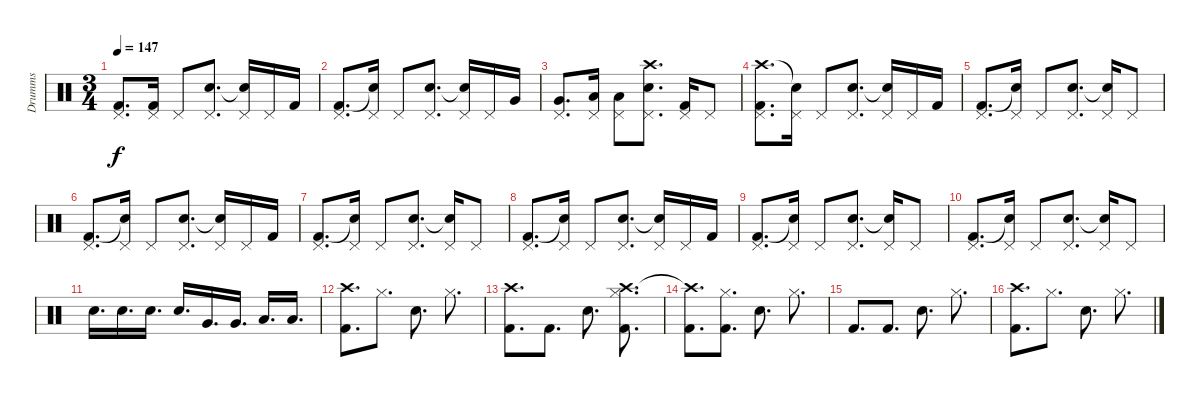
\track ("Drumms" "Drumms") {instrument percussion}
\staff {score}
\articulation defaults
\ts (3 4)
\tempo 147
\clef neutral
\ks c
("Kick (hit) 2" "Pedal Hi-Hat (hit)").8{d dy f} ("Kick (hit) 2" "Pedal Hi-Hat (hit)").16 "Pedal Hi-Hat (hit)".8 ("Electric Snare (hit)" "Pedal Hi-Hat (hit)").8{d} ("Snare (hit)"{t} "Pedal Hi-Hat (hit)").16 "Pedal Hi-Hat (hit)".16 "Kick (hit) 2".16 |
("Kick (hit) 2" "Pedal Hi-Hat (hit)").8{d} ("Snare (hit)"{t} "Pedal Hi-Hat (hit)").16 "Pedal Hi-Hat (hit)".8 ("Electric Snare (hit)" "Pedal Hi-Hat (hit)").8{d} ("Snare (hit)"{t} "Pedal Hi-Hat (hit)").16 "Pedal Hi-Hat (hit)".16 "Very Low Tom (hit)".16 |
("Very Low Tom (hit)" "Pedal Hi-Hat (hit)").8{d} ("Low Tom (hit)" "Pedal Hi-Hat (hit)").16 ("Low Tom (hit)" "Pedal Hi-Hat (hit)").8 ("Crash high (hit)" "Electric Snare (hit)" "Pedal Hi-Hat (hit)").8{d} ("Kick (hit) 2" "Pedal Hi-Hat (hit)").16 "Pedal Hi-Hat (hit)".8 |
("Crash high (hit)" "Kick (hit) 2" "Pedal Hi-Hat (hit)").8{d} ("Snare (hit)"{t} "Pedal Hi-Hat (hit)").16 "Pedal Hi-Hat (hit)".8 ("Electric Snare (hit)" "Pedal Hi-Hat (hit)").8{d} ("Snare (hit)"{t} "Pedal Hi-Hat (hit)").16 "Pedal Hi-Hat (hit)".16 "Kick (hit) 2".16 |
("Kick (hit) 2" "Pedal Hi-Hat (hit)").8{d} ("Snare (hit)"{t} "Pedal Hi-Hat (hit)").16 "Pedal Hi-Hat (hit)".8 ("Electric Snare (hit)" "Pedal Hi-Hat (hit)").8{d} ("Snare (hit)"{t} "Pedal Hi-Hat (hit)").16 "Pedal Hi-Hat (hit)".8 |
("Kick (hit) 2" "Pedal Hi-Hat (hit)").8{d} ("Snare (hit)"{t} "Pedal Hi-Hat (hit)").16 "Pedal Hi-Hat (hit)".8 ("Electric Snare (hit)" "Pedal Hi-Hat (hit)").8{d} ("Snare (hit)"{t} "Pedal Hi-Hat (hit)").16 "Pedal Hi-Hat (hit)".16 "Kick (hit) 2".16 |
("Kick (hit) 2" "Pedal Hi-Hat (hit)").8{d} ("Snare (hit)"{t} "Pedal Hi-Hat (hit)").16 "Pedal Hi-Hat (hit)".8 ("Electric Snare (hit)" "Pedal Hi-Hat (hit)").8{d} ("Snare (hit)"{t} "Pedal Hi-Hat (hit)").16 "Pedal Hi-Hat (hit)".8 |
("Kick (hit) 2" "Pedal Hi-Hat (hit)").8{d} ("Snare (hit)"{t} "Pedal Hi-Hat (hit)").16 "Pedal Hi-Hat (hit)".8 ("Electric Snare (hit)" "Pedal Hi-Hat (hit)").8{d} ("Snare (hit)"{t} "Pedal Hi-Hat (hit)").16 "Pedal Hi-Hat (hit)".16 "Kick (hit) 2".16 |
("Kick (hit) 2" "Pedal Hi-Hat (hit)").8{d} ("Snare (hit)"{t} "Pedal Hi-Hat (hit)").16 "Pedal Hi-Hat (hit)".8 ("Electric Snare (hit)" "Pedal Hi-Hat (hit)").8{d} ("Snare (hit)"{t} "Pedal Hi-Hat (hit)").16 "Pedal Hi-Hat (hit)".8 |
("Kick (hit) 2" "Pedal Hi-Hat (hit)").8{d} ("Snare (hit)"{t} "Pedal Hi-Hat (hit)").16 "Pedal Hi-Hat (hit)".8 ("Electric Snare (hit)" "Pedal Hi-Hat (hit)").8{d} ("Snare (hit)"{t} "Pedal Hi-Hat (hit)").16 "Pedal Hi-Hat (hit)".8 |
\section ("" "")
"Electric Snare (hit)".16{d} "Electric Snare (hit)".16{d} "Electric Snare (hit)".16{d} "Electric Snare (hit)".16{d} "Very Low Tom (hit)".16{d} "Very Low Tom (hit)".16{d} "Low Tom (hit)".16{d} "Low Tom (hit)".16{d} |
("Crash high (hit)" "Kick (hit) 2").8{d} "Hi-Hat (closed)".8{d} "Electric Snare (hit)".8{d} "Hi-Hat (closed)".8{d} |
("Crash high (hit)" "Kick (hit) 2").8{d} "Kick (hit) 2".8{d} "Electric Snare (hit)".8{d} ("Crash high (hit)" "Kick (hit) 2" "Hi-Hat (closed)").8{d} |
("Crash high (hit)"{t} "Kick (hit) 2").8{d} ("Kick (hit) 2" "Hi-Hat (closed)").8{d} "Electric Snare (hit)".8{d} "Hi-Hat (closed)".8{d} |
"Kick (hit) 2".8{d} "Kick (hit) 2".8{d} "Electric Snare (hit)".8{d} "Hi-Hat (closed)".8{d} |
("Crash high (hit)" "Kick (hit) 2").8{d} "Hi-Hat (closed)".8{d} "Electric Snare (hit)".8{d} "Hi-Hat (closed)".8{d}
